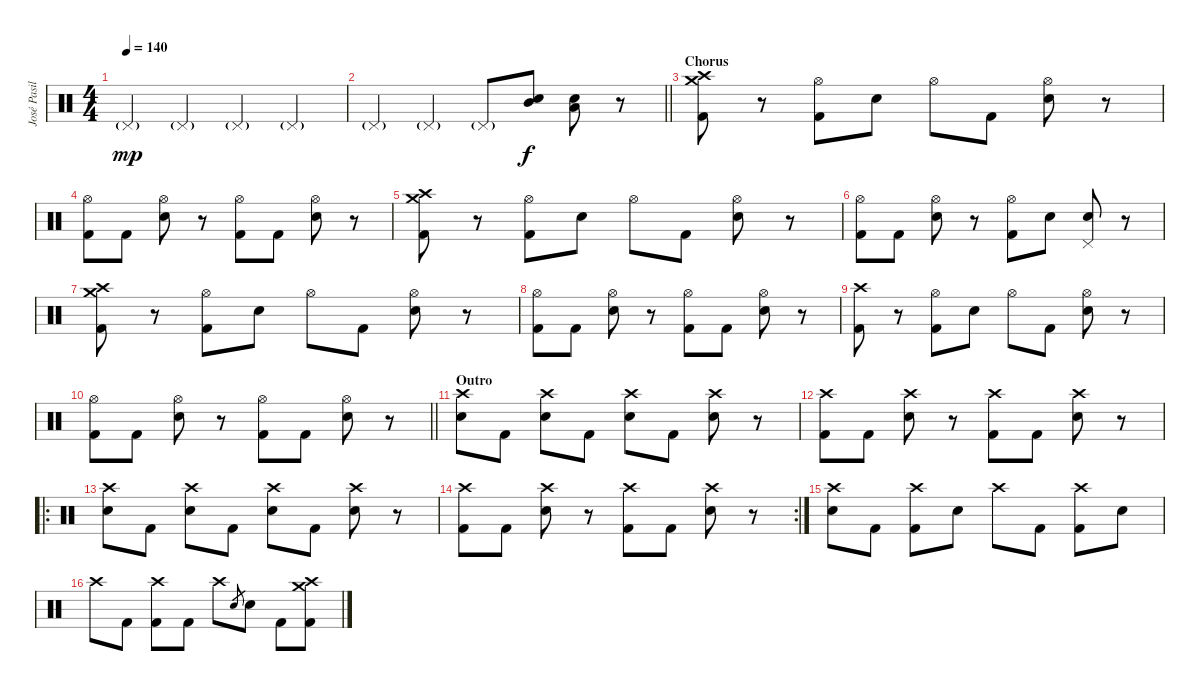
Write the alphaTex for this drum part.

\track ("José Pasillas [Drums]" "José Pasil") {instrument percussion}
\staff {score}
\articulation defaults
\ts (4 4)
\tempo 140
\clef neutral
\ks c "Pedal Hi-Hat (hit)"{g}.4{dy mp} "Pedal Hi-Hat (hit)"{g}.4 "Pedal Hi-Hat (hit)"{g}.4 "Pedal Hi-Hat (hit)"{g}.4
|
\barLineRight lightlight "Pedal Hi-Hat (hit)"{g}.4 "Pedal Hi-Hat (hit)"{g}.4 "Pedal Hi-Hat (hit)"{g}.8
("Electric Snare (hit)" "Mid Tom (hit)").8{dy f} ("Electric Snare (hit)" "Low Tom (hit)").8 r.8 |
\section ("" "Chorus")
("Kick (hit) 2" "Crash high (hit)" "Crash medium (hit)").8 r.8 ("Kick (hit) 2" "Hi-Hat (open)").8 "Electric Snare (hit)".8 "Hi-Hat (open)".8 "Kick (hit) 2".8 ("Electric Snare (hit)" "Hi-Hat (open)").8 r.8 |
("Kick (hit) 2" "Hi-Hat (open)").8 "Kick (hit) 2".8 ("Electric Snare (hit)" "Hi-Hat (open)").8 r.8 ("Kick (hit) 2" "Hi-Hat (open)").8 "Kick (hit) 2".8 ("Electric Snare (hit)" "Hi-Hat (open)").8 r.8 |
("Kick (hit) 2" "Crash high (hit)" "Crash medium (hit)").8 r.8 ("Kick (hit) 2" "Hi-Hat (open)").8 "Electric Snare (hit)".8 "Hi-Hat (open)".8 "Kick (hit) 2".8 ("Electric Snare (hit)" "Hi-Hat (open)").8 r.8 |
("Kick (hit) 2" "Hi-Hat (open)").8 "Kick (hit) 2".8 ("Electric Snare (hit)" "Hi-Hat (open)").8 r.8 ("Kick (hit) 2" "Hi-Hat (open)").8 "Electric Snare (hit)".8 ("Electric Snare (hit)" "Pedal Hi-Hat (hit)").8 r.8 |
("Kick (hit) 2" "Crash high (hit)" "Crash medium (hit)").8 r.8 ("Kick (hit) 2" "Hi-Hat (open)").8 "Electric Snare (hit)".8 "Hi-Hat (open)".8 "Kick (hit) 2".8 ("Electric Snare (hit)" "Hi-Hat (open)").8 r.8 |
("Kick (hit) 2" "Hi-Hat (open)").8 "Kick (hit) 2".8 ("Electric Snare (hit)" "Hi-Hat (open)").8 r.8 ("Kick (hit) 2" "Hi-Hat (open)").8 "Kick (hit) 2".8 ("Electric Snare (hit)" "Hi-Hat (open)").8 r.8 |
("Kick (hit) 2" "Crash high (hit)").8 r.8 ("Kick (hit) 2" "Hi-Hat (open)").8 "Electric Snare (hit)".8 "Hi-Hat (open)".8 "Kick (hit) 2".8 ("Electric Snare (hit)" "Hi-Hat (open)").8 r.8 |
\barLineRight lightlight
("Kick (hit) 2" "Hi-Hat (open)").8 "Kick (hit) 2".8 ("Electric Snare (hit)" "Hi-Hat (open)").8 r.8 ("Kick (hit) 2" "Hi-Hat (open)").8 "Kick (hit) 2".8 ("Electric Snare (hit)" "Hi-Hat (open)").8 r.8 |
\section ("" "Outro")
("Electric Snare (hit)" "Crash high (hit)").8 "Kick (hit) 2".8 ("Electric Snare (hit)" "Crash high (hit)").8 "Kick (hit) 2".8 ("Electric Snare (hit)" "Crash high (hit)").8 "Kick (hit) 2".8 ("Electric Snare (hit)" "Crash high (hit)").8 r.8 |
("Kick (hit) 2" "Crash high (hit)").8 "Kick (hit) 2".8 ("Electric Snare (hit)" "Crash high (hit)").8 r.8 ("Kick (hit) 2" "Crash high (hit)").8 "Kick (hit) 2".8 ("Electric Snare (hit)" "Crash high (hit)").8 r.8 |
\ro
("Electric Snare (hit)" "Crash high (hit)").8 "Kick (hit) 2".8 ("Electric Snare (hit)" "Crash high (hit)").8 "Kick (hit) 2".8 ("Electric Snare (hit)" "Crash high (hit)").8 "Kick (hit) 2".8 ("Electric Snare (hit)" "Crash high (hit)").8 r.8 |
\rc 2
("Kick (hit) 2" "Crash high (hit)").8 "Kick (hit) 2".8 ("Electric Snare (hit)" "Crash high (hit)").8 r.8 ("Kick (hit) 2" "Crash high (hit)").8 "Kick (hit) 2".8 ("Electric Snare (hit)" "Crash high (hit)").8 r.8 |
("Electric Snare (hit)" "Crash high (hit)").8 "Kick (hit) 2".8 ("Kick (hit) 2" "Crash high (hit)").8 "Electric Snare (hit)".8 "Crash high (hit)".8 "Kick (hit) 2".8 ("Kick (hit) 2" "Crash high (hit)").8 "Electric Snare (hit)".8 |
"Crash high (hit)".8 "Kick (hit) 2".8 ("Kick (hit) 2" "Crash high (hit)").8 "Kick (hit) 2".8 "Crash high (hit)".8 "Electric Snare (hit)".8{gr} "Electric Snare (hit)".8 "Kick (hit) 2".8 ("Kick (hit) 2" "Crash medium (hit)" "Crash high (hit)").8
